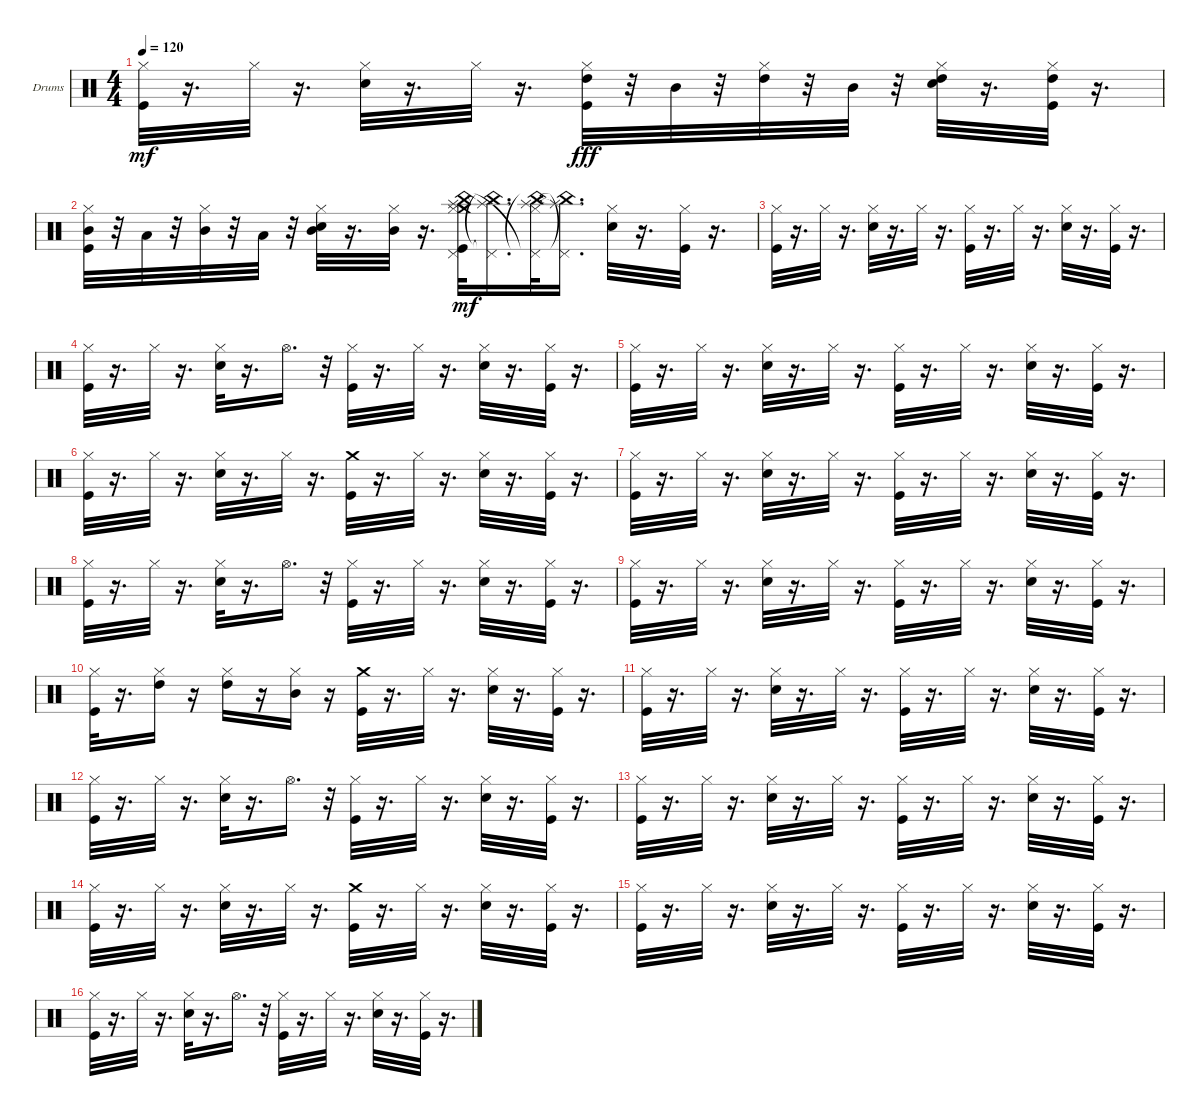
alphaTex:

\bracketExtendMode groupsimilarinstruments
\firstSystemTrackNameOrientation horizontal
\otherSystemsTrackNameOrientation horizontal
\track ("Ударные" "Drums") {instrument percussion}
\staff {score}
\articulation defaults
\ts (4 4)
\tempo 120
\clef neutral
\ks c
("Hi-Hat (closed)" "Kick (hit)").32{dy mf} r.16{d} "Hi-Hat (closed)".32 r.16{d} ("Hi-Hat (closed)" "Snare (hit) 2").32 r.16{d} "Hi-Hat (closed)".32 r.16{d} ("Hi-Hat (closed)" "Kick (hit)" "High Tom (hit)").32{dy fff} r.32 "Mid Tom (hit)".32 r.32 ("Hi-Hat (closed)" "High Tom (hit)").32 r.32 "Mid Tom (hit)".32 r.32 ("Hi-Hat (closed)" "Snare (hit) 2" "High Tom (hit)").32 r.16{d} ("Hi-Hat (closed)" "Kick (hit)" "High Tom (hit)").32 r.16{d} |
("Hi-Hat (closed)" "Kick (hit)" "Mid Tom (hit)").32 r.32 "Low Tom (hit)".32 r.32 ("Hi-Hat (closed)" "Mid Tom (hit)").32 r.32 "Low Tom (hit)".32 r.32 ("Hi-Hat (closed)" "Mid Tom (hit)" "Snare (hit) 2").32 r.16{d} ("Hi-Hat (closed)" "Mid Tom (hit)").32 r.16{d} ("Crash medium (hit)" "Kick (hit)" "Pedal Hi-Hat (hit)" "China (hit)" "Splash (hit)" "Hi-Hat (closed)").32{dy mf} ("Splash (hit)"{t} "China (hit)"{t} "Pedal Hi-Hat (hit)"{t}).16{d} ("Hi-Hat (closed)" "Splash (hit)" "China (hit)"{t} "Pedal Hi-Hat (hit)"{t}).32 ("Splash (hit)"{t} "China (hit)"{t} "Pedal Hi-Hat (hit)"{t}).16{d} ("Hi-Hat (closed)" "Snare (hit) 2").32 r.16{d} ("Hi-Hat (closed)" "Kick (hit)").32 r.16{d} |
("Hi-Hat (closed)" "Kick (hit)").32 r.16{d} "Hi-Hat (closed)".32 r.16{d} ("Hi-Hat (closed)" "Snare (hit) 2").32 r.16{d} "Hi-Hat (closed)".32 r.16{d} ("Hi-Hat (closed)" "Kick (hit)").32 r.16{d} "Hi-Hat (closed)".32 r.16{d} ("Hi-Hat (closed)" "Snare (hit) 2").32 r.16{d} ("Hi-Hat (closed)" "Kick (hit)").32 r.16{d} |
("Hi-Hat (closed)" "Kick (hit)").32 r.16{d} "Hi-Hat (closed)".32 r.16{d} ("Hi-Hat (closed)" "Snare (hit) 2").32 r.16{d} "Hi-Hat (open)".16{d} r.32 ("Hi-Hat (closed)" "Kick (hit)").32 r.16{d} "Hi-Hat (closed)".32 r.16{d} ("Hi-Hat (closed)" "Snare (hit) 2").32 r.16{d} ("Hi-Hat (closed)" "Kick (hit)").32 r.16{d} |
("Hi-Hat (closed)" "Kick (hit)").32 r.16{d} "Hi-Hat (closed)".32 r.16{d} ("Hi-Hat (closed)" "Snare (hit) 2").32 r.16{d} "Hi-Hat (closed)".32 r.16{d} ("Hi-Hat (closed)" "Kick (hit)").32 r.16{d} "Hi-Hat (closed)".32 r.16{d} ("Hi-Hat (closed)" "Snare (hit) 2").32 r.16{d} ("Hi-Hat (closed)" "Kick (hit)").32 r.16{d} |
("Hi-Hat (closed)" "Kick (hit)").32 r.16{d} "Hi-Hat (closed)".32 r.16{d} ("Hi-Hat (closed)" "Snare (hit) 2").32 r.16{d} "Hi-Hat (closed)".32 r.16{d} ("Crash medium (hit)" "Kick (hit)").32 r.16{d} "Hi-Hat (closed)".32 r.16{d} ("Hi-Hat (closed)" "Snare (hit) 2").32 r.16{d} ("Hi-Hat (closed)" "Kick (hit)").32 r.16{d} |
("Hi-Hat (closed)" "Kick (hit)").32 r.16{d} "Hi-Hat (closed)".32 r.16{d} ("Hi-Hat (closed)" "Snare (hit) 2").32 r.16{d} "Hi-Hat (closed)".32 r.16{d} ("Hi-Hat (closed)" "Kick (hit)").32 r.16{d} "Hi-Hat (closed)".32 r.16{d} ("Hi-Hat (closed)" "Snare (hit) 2").32 r.16{d} ("Hi-Hat (closed)" "Kick (hit)").32 r.16{d} |
("Hi-Hat (closed)" "Kick (hit)").32 r.16{d} "Hi-Hat (closed)".32 r.16{d} ("Hi-Hat (closed)" "Snare (hit) 2").32 r.16{d} "Hi-Hat (open)".16{d} r.32 ("Hi-Hat (closed)" "Kick (hit)").32 r.16{d} "Hi-Hat (closed)".32 r.16{d} ("Hi-Hat (closed)" "Snare (hit) 2").32 r.16{d} ("Hi-Hat (closed)" "Kick (hit)").32 r.16{d} |
("Hi-Hat (closed)" "Kick (hit)").32 r.16{d} "Hi-Hat (closed)".32 r.16{d} ("Hi-Hat (closed)" "Snare (hit) 2").32 r.16{d} "Hi-Hat (closed)".32 r.16{d} ("Hi-Hat (closed)" "Kick (hit)").32 r.16{d} "Hi-Hat (closed)".32 r.16{d} ("Hi-Hat (closed)" "Snare (hit) 2").32 r.16{d} ("Hi-Hat (closed)" "Kick (hit)").32 r.16{d} |
("Hi-Hat (closed)" "Kick (hit)").32 r.16{d} ("Hi-Hat (closed)" "High Tom (hit)").16 r.16 ("Hi-Hat (closed)" "High Tom (hit)").16 r.16 ("Hi-Hat (closed)" "Mid Tom (hit)").16 r.16 ("Crash medium (hit)" "Kick (hit)").32 r.16{d} "Hi-Hat (closed)".32 r.16{d} ("Hi-Hat (closed)" "Snare (hit) 2").32 r.16{d} ("Hi-Hat (closed)" "Kick (hit)").32 r.16{d} |
("Hi-Hat (closed)" "Kick (hit)").32 r.16{d} "Hi-Hat (closed)".32 r.16{d} ("Hi-Hat (closed)" "Snare (hit) 2").32 r.16{d} "Hi-Hat (closed)".32 r.16{d} ("Hi-Hat (closed)" "Kick (hit)").32 r.16{d} "Hi-Hat (closed)".32 r.16{d} ("Hi-Hat (closed)" "Snare (hit) 2").32 r.16{d} ("Hi-Hat (closed)" "Kick (hit)").32 r.16{d} |
("Hi-Hat (closed)" "Kick (hit)").32 r.16{d} "Hi-Hat (closed)".32 r.16{d} ("Hi-Hat (closed)" "Snare (hit) 2").32 r.16{d} "Hi-Hat (open)".16{d} r.32 ("Hi-Hat (closed)" "Kick (hit)").32 r.16{d} "Hi-Hat (closed)".32 r.16{d} ("Hi-Hat (closed)" "Snare (hit) 2").32 r.16{d} ("Hi-Hat (closed)" "Kick (hit)").32 r.16{d} |
("Hi-Hat (closed)" "Kick (hit)").32 r.16{d} "Hi-Hat (closed)".32 r.16{d} ("Hi-Hat (closed)" "Snare (hit) 2").32 r.16{d} "Hi-Hat (closed)".32 r.16{d} ("Hi-Hat (closed)" "Kick (hit)").32 r.16{d} "Hi-Hat (closed)".32 r.16{d} ("Hi-Hat (closed)" "Snare (hit) 2").32 r.16{d} ("Hi-Hat (closed)" "Kick (hit)").32 r.16{d} |
("Hi-Hat (closed)" "Kick (hit)").32 r.16{d} "Hi-Hat (closed)".32 r.16{d} ("Hi-Hat (closed)" "Snare (hit) 2").32 r.16{d} "Hi-Hat (closed)".32 r.16{d} ("Crash medium (hit)" "Kick (hit)").32 r.16{d} "Hi-Hat (closed)".32 r.16{d} ("Hi-Hat (closed)" "Snare (hit) 2").32 r.16{d} ("Hi-Hat (closed)" "Kick (hit)").32 r.16{d} |
("Hi-Hat (closed)" "Kick (hit)").32 r.16{d} "Hi-Hat (closed)".32 r.16{d} ("Hi-Hat (closed)" "Snare (hit) 2").32 r.16{d} "Hi-Hat (closed)".32 r.16{d} ("Hi-Hat (closed)" "Kick (hit)").32 r.16{d} "Hi-Hat (closed)".32 r.16{d} ("Hi-Hat (closed)" "Snare (hit) 2").32 r.16{d} ("Hi-Hat (closed)" "Kick (hit)").32 r.16{d} |
("Hi-Hat (closed)" "Kick (hit)").32 r.16{d} "Hi-Hat (closed)".32 r.16{d} ("Hi-Hat (closed)" "Snare (hit) 2").32 r.16{d} "Hi-Hat (open)".16{d} r.32 ("Hi-Hat (closed)" "Kick (hit)").32 r.16{d} "Hi-Hat (closed)".32 r.16{d} ("Hi-Hat (closed)" "Snare (hit) 2").32 r.16{d} ("Hi-Hat (closed)" "Kick (hit)").32 r.16{d}
